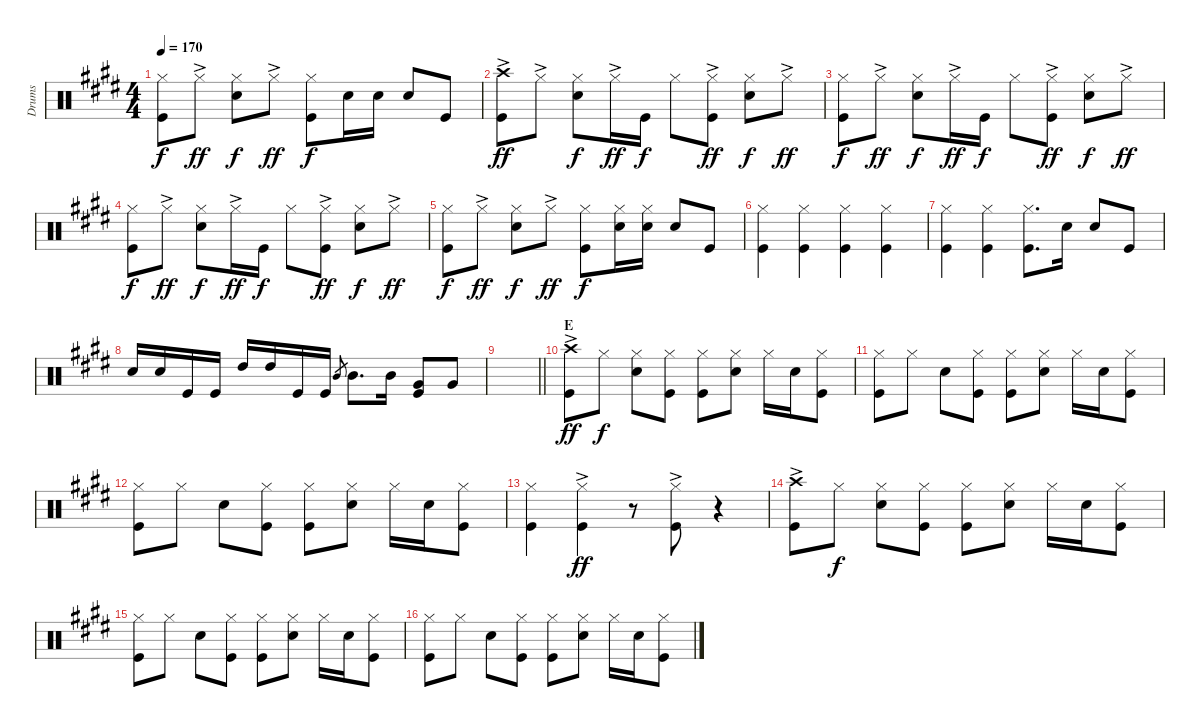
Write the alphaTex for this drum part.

\track ("Drums" "Drums") {instrument percussion}
\staff {score}
\articulation defaults
\ts (4 4)
\tempo 170
\clef neutral
\ks e
("Kick (hit)" "Hi-Hat (closed)").8{dy f} "Hi-Hat (closed)"{ac}.8{dy ff} ("Snare (hit) 2" "Hi-Hat (closed)").8{dy f} "Hi-Hat (closed)"{ac}.8{dy ff} ("Hi-Hat (closed)" "Kick (hit)").8{dy f} "Snare (hit) 2".16 "Snare (hit) 2".16 "Snare (hit) 2".8 "Kick (hit)".8 |
("Crash high (hit)"{ac} "Kick (hit)").8{dy ff} "Hi-Hat (closed)"{ac}.8 ("Hi-Hat (closed)" "Snare (hit) 2").8{dy f} "Hi-Hat (closed)"{ac}.16{dy ff} "Kick (hit)".16{dy f} "Hi-Hat (closed)".8 ("Hi-Hat (closed)"{ac} "Kick (hit)").8{dy ff} ("Hi-Hat (closed)" "Snare (hit) 2").8{dy f} "Hi-Hat (closed)"{ac}.8{dy ff} |
("Hi-Hat (closed)" "Kick (hit)").8{dy f} "Hi-Hat (closed)"{ac}.8{dy ff} ("Hi-Hat (closed)" "Snare (hit) 2").8{dy f} "Hi-Hat (closed)"{ac}.16{dy ff} "Kick (hit)".16{dy f} "Hi-Hat (closed)".8 ("Hi-Hat (closed)"{ac} "Kick (hit)").8{dy ff} ("Hi-Hat (closed)" "Snare (hit) 2").8{dy f} "Hi-Hat (closed)"{ac}.8{dy ff} |
("Hi-Hat (closed)" "Kick (hit)").8{dy f} "Hi-Hat (closed)"{ac}.8{dy ff} ("Hi-Hat (closed)" "Snare (hit) 2").8{dy f} "Hi-Hat (closed)"{ac}.16{dy ff} "Kick (hit)".16{dy f} "Hi-Hat (closed)".8 ("Hi-Hat (closed)"{ac} "Kick (hit)").8{dy ff} ("Hi-Hat (closed)" "Snare (hit) 2").8{dy f} "Hi-Hat (closed)"{ac}.8{dy ff} |
("Kick (hit)" "Hi-Hat (closed)").8{dy f} "Hi-Hat (closed)"{ac}.8{dy ff} ("Hi-Hat (closed)" "Snare (hit) 2").8{dy f} "Hi-Hat (closed)"{ac}.8{dy ff} ("Kick (hit)" "Hi-Hat (closed)").8{dy f} ("Snare (hit) 2" "Hi-Hat (closed)").16 ("Hi-Hat (closed)" "Snare (hit) 2").16 "Snare (hit) 2".8 "Kick (hit)".8 |
("Hi-Hat (closed)" "Kick (hit)").4 ("Hi-Hat (closed)" "Kick (hit)").4 ("Hi-Hat (closed)" "Kick (hit)").4 ("Hi-Hat (closed)" "Kick (hit)").4 |
("Kick (hit)" "Hi-Hat (closed)").4 ("Kick (hit)" "Hi-Hat (closed)").4 ("Kick (hit)" "Hi-Hat (closed)").8{d} "Snare (hit) 2".16 "Snare (hit) 2".8 "Kick (hit)".8 |
"Snare (hit) 2".16 "Snare (hit) 2".16 "Kick (hit)".16 "Kick (hit)".16 "High Tom (hit)".16 "High Tom (hit)".16 "Kick (hit)".16 "Kick (hit)".16 "Mid Tom (hit)".8{gr} "Mid Tom (hit)".8{d} "Mid Tom (hit)".16 ("Kick (hit)" "Very Low Tom (hit)").8 "Very Low Tom (hit)".8 |
\barLineRight lightlight
|
\section ("" "E")
("Crash high (hit)"{ac} "Kick (hit)").8{dy ff} "Hi-Hat (closed)".8{dy f} ("Hi-Hat (closed)" "Snare (hit) 2").8 ("Hi-Hat (closed)" "Kick (hit)").8 ("Hi-Hat (closed)" "Kick (hit)").8 ("Hi-Hat (closed)" "Snare (hit) 2").8 "Hi-Hat (closed)".16 "Snare (hit) 2".16 ("Hi-Hat (closed)" "Kick (hit)").8 |
("Hi-Hat (closed)" "Kick (hit)").8 "Hi-Hat (closed)".8 "Snare (hit) 2".8 ("Hi-Hat (closed)" "Kick (hit)").8 ("Hi-Hat (closed)" "Kick (hit)").8 ("Hi-Hat (closed)" "Snare (hit) 2").8 "Hi-Hat (closed)".16 "Snare (hit) 2".16 ("Hi-Hat (closed)" "Kick (hit)").8 |
("Hi-Hat (closed)" "Kick (hit)").8 "Hi-Hat (closed)".8 "Snare (hit) 2".8 ("Hi-Hat (closed)" "Kick (hit)").8 ("Hi-Hat (closed)" "Kick (hit)").8 ("Hi-Hat (closed)" "Snare (hit) 2").8 "Hi-Hat (closed)".16 "Snare (hit) 2".16 ("Hi-Hat (closed)" "Kick (hit)").8 |
("Hi-Hat (closed)" "Kick (hit)").4 ("Kick (hit)" "Hi-Hat (closed)"{ac}).4{dy ff} r.8 ("Hi-Hat (closed)"{ac} "Kick (hit)").8 r.4 |
("Crash high (hit)"{ac} "Kick (hit)").8 "Hi-Hat (closed)".8{dy f} ("Hi-Hat (closed)" "Snare (hit) 2").8 ("Hi-Hat (closed)" "Kick (hit)").8 ("Hi-Hat (closed)" "Kick (hit)").8 ("Hi-Hat (closed)" "Snare (hit) 2").8 "Hi-Hat (closed)".16 "Snare (hit) 2".16 ("Hi-Hat (closed)" "Kick (hit)").8 |
("Hi-Hat (closed)" "Kick (hit)").8 "Hi-Hat (closed)".8 "Snare (hit) 2".8 ("Hi-Hat (closed)" "Kick (hit)").8 ("Hi-Hat (closed)" "Kick (hit)").8 ("Hi-Hat (closed)" "Snare (hit) 2").8 "Hi-Hat (closed)".16 "Snare (hit) 2".16 ("Hi-Hat (closed)" "Kick (hit)").8 |
("Hi-Hat (closed)" "Kick (hit)").8 "Hi-Hat (closed)".8 "Snare (hit) 2".8 ("Hi-Hat (closed)" "Kick (hit)").8 ("Hi-Hat (closed)" "Kick (hit)").8 ("Hi-Hat (closed)" "Snare (hit) 2").8 "Hi-Hat (closed)".16 "Snare (hit) 2".16 ("Hi-Hat (closed)" "Kick (hit)").8
